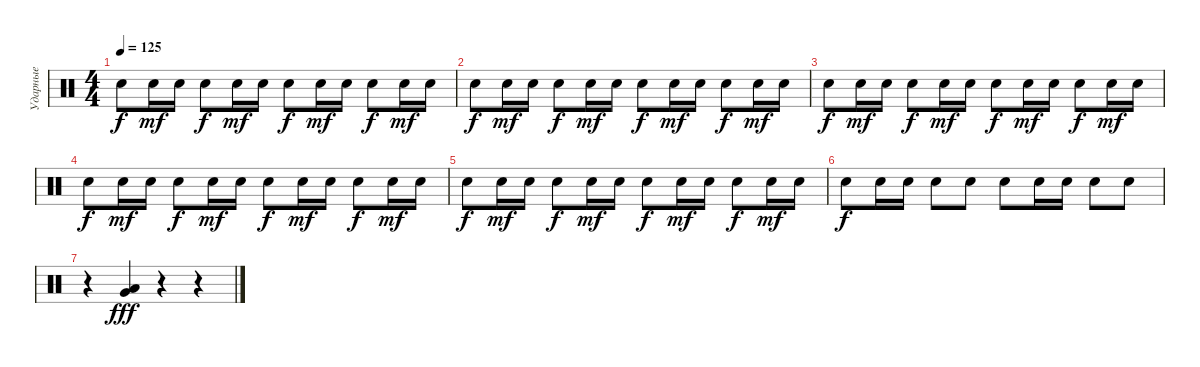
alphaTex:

\track ("Ударные" "Ударные") {instrument percussion}
\staff {score}
\articulation defaults
\ts (4 4)
\tempo 125
\clef neutral
\ks c "Electric Snare (hit)".8{dy f} "Electric Snare (hit)".16{dy mf} "Electric Snare (hit)".16 "Electric Snare (hit)".8{dy f} "Electric Snare (hit)".16{dy mf} "Electric Snare (hit)".16 "Electric Snare (hit)".8{dy f} "Electric Snare (hit)".16{dy mf} "Electric Snare (hit)".16 "Electric Snare (hit)".8{dy f} "Electric Snare (hit)".16{dy mf} "Electric Snare (hit)".16
|
"Electric Snare (hit)".8{dy f} "Electric Snare (hit)".16{dy mf} "Electric Snare (hit)".16 "Electric Snare (hit)".8{dy f} "Electric Snare (hit)".16{dy mf} "Electric Snare (hit)".16 "Electric Snare (hit)".8{dy f} "Electric Snare (hit)".16{dy mf} "Electric Snare (hit)".16 "Electric Snare (hit)".8{dy f} "Electric Snare (hit)".16{dy mf} "Electric Snare (hit)".16 |
"Electric Snare (hit)".8{dy f} "Electric Snare (hit)".16{dy mf} "Electric Snare (hit)".16 "Electric Snare (hit)".8{dy f} "Electric Snare (hit)".16{dy mf} "Electric Snare (hit)".16 "Electric Snare (hit)".8{dy f} "Electric Snare (hit)".16{dy mf} "Electric Snare (hit)".16 "Electric Snare (hit)".8{dy f} "Electric Snare (hit)".16{dy mf} "Electric Snare (hit)".16 |
"Electric Snare (hit)".8{dy f} "Electric Snare (hit)".16{dy mf} "Electric Snare (hit)".16 "Electric Snare (hit)".8{dy f} "Electric Snare (hit)".16{dy mf} "Electric Snare (hit)".16 "Electric Snare (hit)".8{dy f} "Electric Snare (hit)".16{dy mf} "Electric Snare (hit)".16 "Electric Snare (hit)".8{dy f} "Electric Snare (hit)".16{dy mf} "Electric Snare (hit)".16 |
"Electric Snare (hit)".8{dy f} "Electric Snare (hit)".16{dy mf} "Electric Snare (hit)".16 "Electric Snare (hit)".8{dy f} "Electric Snare (hit)".16{dy mf} "Electric Snare (hit)".16 "Electric Snare (hit)".8{dy f} "Electric Snare (hit)".16{dy mf} "Electric Snare (hit)".16 "Electric Snare (hit)".8{dy f} "Electric Snare (hit)".16{dy mf} "Electric Snare (hit)".16 |
"Electric Snare (hit)".8{dy f} "Electric Snare (hit)".16 "Electric Snare (hit)".16 "Electric Snare (hit)".8 "Electric Snare (hit)".8 "Electric Snare (hit)".8 "Electric Snare (hit)".16 "Electric Snare (hit)".16 "Electric Snare (hit)".8 "Electric Snare (hit)".8 |
r.4 ("Very Low Tom (hit)" "Low Tom (hit)").4{dy fff} r.4 r.4
